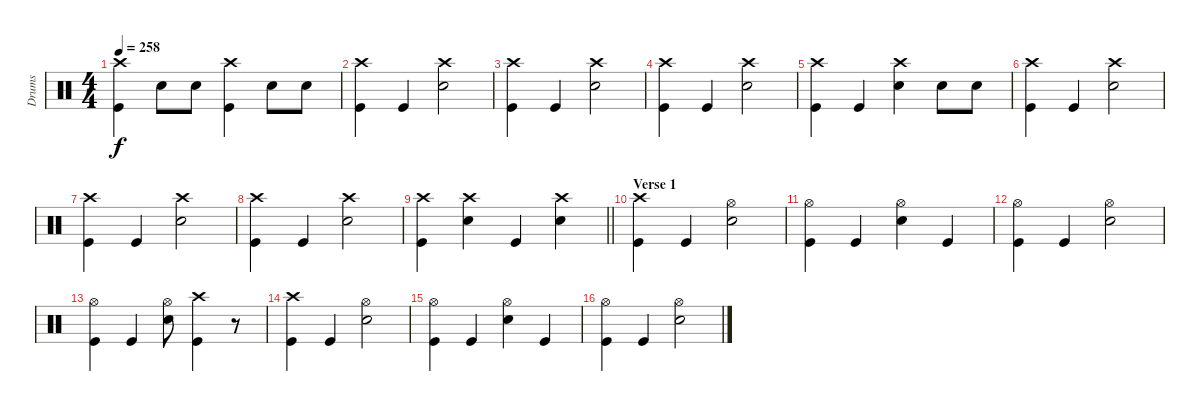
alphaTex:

\track ("Drums" "Drums") {instrument percussion}
\staff {score}
\articulation defaults
\ts (4 4)
\tempo 258
\clef neutral
\ks c
("Crash high (hit)" "Kick (hit)").4{dy f} "Electric Snare (hit)".8 "Electric Snare (hit)".8 ("Crash high (hit)" "Kick (hit)").4 "Electric Snare (hit)".8 "Electric Snare (hit)".8 |
("Crash high (hit)" "Kick (hit)").4 "Kick (hit)".4 ("Crash high (hit)" "Electric Snare (hit)").2 |
("Crash high (hit)" "Kick (hit)").4 "Kick (hit)".4 ("Crash high (hit)" "Electric Snare (hit)").2 |
("Crash high (hit)" "Kick (hit)").4 "Kick (hit)".4 ("Crash high (hit)" "Electric Snare (hit)").2 |
("Crash high (hit)" "Kick (hit)").4 "Kick (hit)".4 ("Crash high (hit)" "Electric Snare (hit)").4 "Electric Snare (hit)".8 "Electric Snare (hit)".8 |
("Crash high (hit)" "Kick (hit)").4 "Kick (hit)".4 ("Crash high (hit)" "Electric Snare (hit)").2 |
("Crash high (hit)" "Kick (hit)").4 "Kick (hit)".4 ("Crash high (hit)" "Electric Snare (hit)").2 |
("Crash high (hit)" "Kick (hit)").4 "Kick (hit)".4 ("Crash high (hit)" "Electric Snare (hit)").2 |
\barLineRight lightlight
("Crash high (hit)" "Kick (hit)").4 ("Crash high (hit)" "Electric Snare (hit)").4 "Kick (hit)".4 ("Crash high (hit)" "Electric Snare (hit)").4 |
\section ("" "Verse 1")
("Crash high (hit)" "Kick (hit)").4 "Kick (hit)".4 ("Hi-Hat (open)" "Electric Snare (hit)").2 |
("Hi-Hat (open)" "Kick (hit)").4 "Kick (hit)".4 ("Hi-Hat (open)" "Electric Snare (hit)").4 "Kick (hit)".4 |
("Hi-Hat (open)" "Kick (hit)").4 "Kick (hit)".4 ("Hi-Hat (open)" "Electric Snare (hit)").2 |
("Hi-Hat (open)" "Kick (hit)").4 "Kick (hit)".4 ("Hi-Hat (open)" "Electric Snare (hit)").8 ("Crash high (hit)" "Kick (hit)").4 r.8 |
("Crash high (hit)" "Kick (hit)").4 "Kick (hit)".4 ("Hi-Hat (open)" "Electric Snare (hit)").2 |
("Hi-Hat (open)" "Kick (hit)").4 "Kick (hit)".4 ("Hi-Hat (open)" "Electric Snare (hit)").4 "Kick (hit)".4 |
("Hi-Hat (open)" "Kick (hit)").4 "Kick (hit)".4 ("Hi-Hat (open)" "Electric Snare (hit)").2
